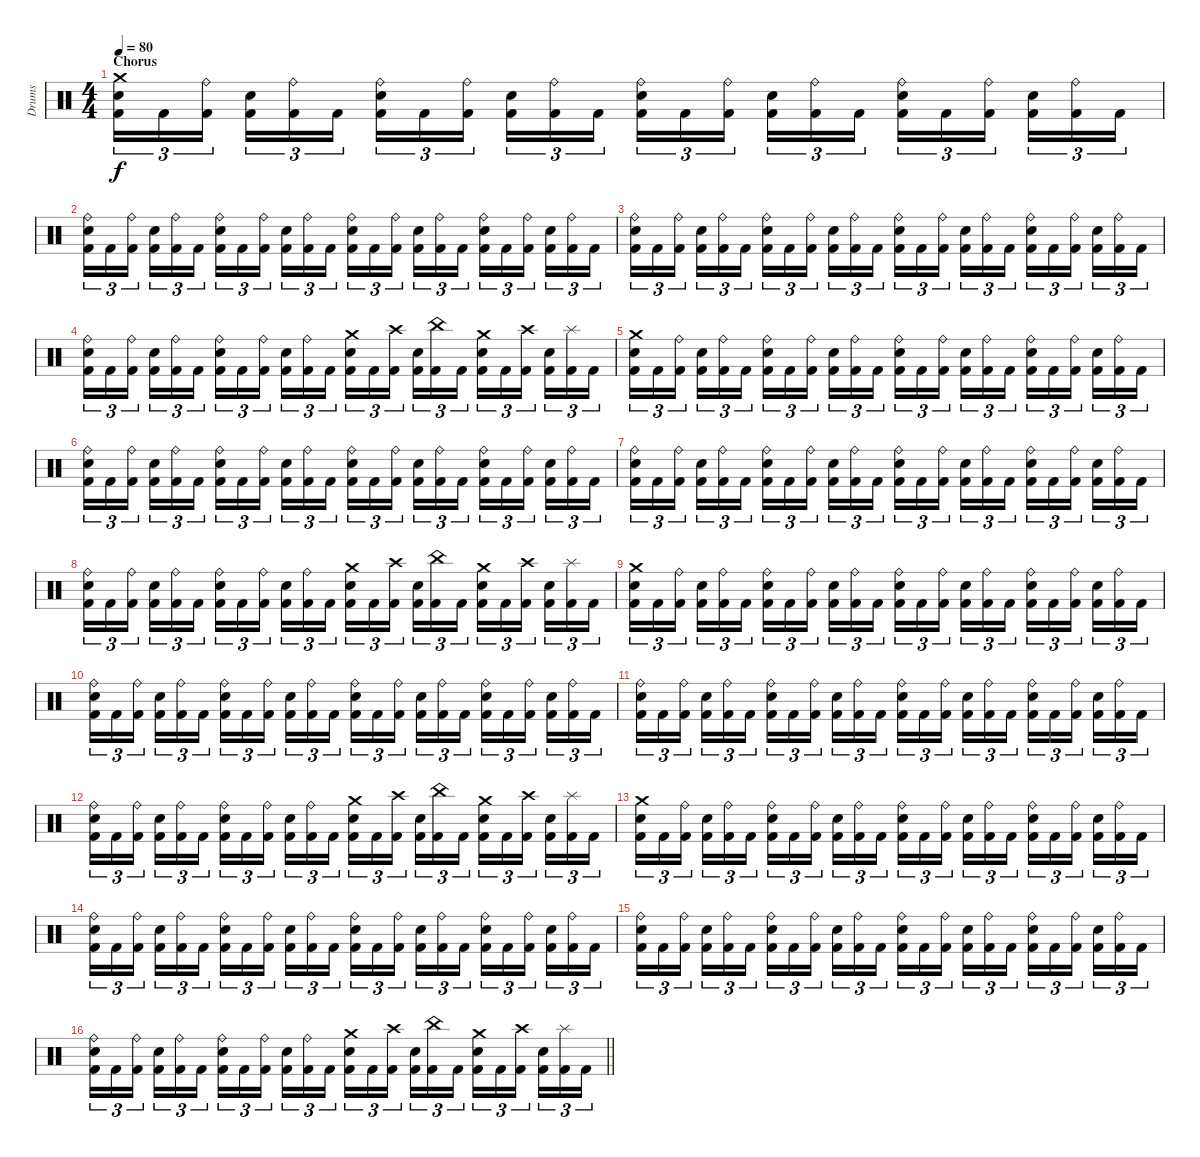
\track ("Drums" "Drums") {instrument percussion}
\staff {score}
\articulation defaults
\ts (4 4)
\section ("" "Chorus")
\tempo 80
\clef neutral
\ks c
("Crash medium (hit)" "Electric Snare (hit)" "Kick (hit) 2").16{tu (3 2) dy f} "Kick (hit) 2".16{tu (3 2)} ("Ride (bell)" "Kick (hit) 2").16{tu (3 2) beam splitsecondary} ("Electric Snare (hit)" "Kick (hit) 2").16{tu (3 2)} ("Ride (bell)" "Kick (hit) 2").16{tu (3 2)} "Kick (hit) 2".16{tu (3 2)} ("Ride (bell)" "Electric Snare (hit)" "Kick (hit) 2").16{tu (3 2)} "Kick (hit) 2".16{tu (3 2)} ("Ride (bell)" "Kick (hit) 2").16{tu (3 2) beam splitsecondary} ("Electric Snare (hit)" "Kick (hit) 2").16{tu (3 2)} ("Ride (bell)" "Kick (hit) 2").16{tu (3 2)} "Kick (hit) 2".16{tu (3 2)} ("Ride (bell)" "Electric Snare (hit)" "Kick (hit) 2").16{tu (3 2)} "Kick (hit) 2".16{tu (3 2)} ("Ride (bell)" "Kick (hit) 2").16{tu (3 2) beam splitsecondary} ("Electric Snare (hit)" "Kick (hit) 2").16{tu (3 2)} ("Ride (bell)" "Kick (hit) 2").16{tu (3 2)} "Kick (hit) 2".16{tu (3 2)} ("Ride (bell)" "Electric Snare (hit)" "Kick (hit) 2").16{tu (3 2)} "Kick (hit) 2".16{tu (3 2)} ("Ride (bell)" "Kick (hit) 2").16{tu (3 2) beam splitsecondary} ("Electric Snare (hit)" "Kick (hit) 2").16{tu (3 2)} ("Ride (bell)" "Kick (hit) 2").16{tu (3 2)} "Kick (hit) 2".16{tu (3 2)} |
("Ride (bell)" "Electric Snare (hit)" "Kick (hit) 2").16{tu (3 2)} "Kick (hit) 2".16{tu (3 2)} ("Ride (bell)" "Kick (hit) 2").16{tu (3 2) beam splitsecondary} ("Electric Snare (hit)" "Kick (hit) 2").16{tu (3 2)} ("Ride (bell)" "Kick (hit) 2").16{tu (3 2)} "Kick (hit) 2".16{tu (3 2)} ("Ride (bell)" "Electric Snare (hit)" "Kick (hit) 2").16{tu (3 2)} "Kick (hit) 2".16{tu (3 2)} ("Ride (bell)" "Kick (hit) 2").16{tu (3 2) beam splitsecondary} ("Electric Snare (hit)" "Kick (hit) 2").16{tu (3 2)} ("Ride (bell)" "Kick (hit) 2").16{tu (3 2)} "Kick (hit) 2".16{tu (3 2)} ("Ride (bell)" "Electric Snare (hit)" "Kick (hit) 2").16{tu (3 2)} "Kick (hit) 2".16{tu (3 2)} ("Ride (bell)" "Kick (hit) 2").16{tu (3 2) beam splitsecondary} ("Electric Snare (hit)" "Kick (hit) 2").16{tu (3 2)} ("Ride (bell)" "Kick (hit) 2").16{tu (3 2)} "Kick (hit) 2".16{tu (3 2)} ("Ride (bell)" "Electric Snare (hit)" "Kick (hit) 2").16{tu (3 2)} "Kick (hit) 2".16{tu (3 2)} ("Ride (bell)" "Kick (hit) 2").16{tu (3 2) beam splitsecondary} ("Electric Snare (hit)" "Kick (hit) 2").16{tu (3 2)} ("Ride (bell)" "Kick (hit) 2").16{tu (3 2)} "Kick (hit) 2".16{tu (3 2)} |
("Ride (bell)" "Electric Snare (hit)" "Kick (hit) 2").16{tu (3 2)} "Kick (hit) 2".16{tu (3 2)} ("Ride (bell)" "Kick (hit) 2").16{tu (3 2) beam splitsecondary} ("Electric Snare (hit)" "Kick (hit) 2").16{tu (3 2)} ("Ride (bell)" "Kick (hit) 2").16{tu (3 2)} "Kick (hit) 2".16{tu (3 2)} ("Ride (bell)" "Electric Snare (hit)" "Kick (hit) 2").16{tu (3 2)} "Kick (hit) 2".16{tu (3 2)} ("Ride (bell)" "Kick (hit) 2").16{tu (3 2) beam splitsecondary} ("Electric Snare (hit)" "Kick (hit) 2").16{tu (3 2)} ("Ride (bell)" "Kick (hit) 2").16{tu (3 2)} "Kick (hit) 2".16{tu (3 2)} ("Ride (bell)" "Electric Snare (hit)" "Kick (hit) 2").16{tu (3 2)} "Kick (hit) 2".16{tu (3 2)} ("Ride (bell)" "Kick (hit) 2").16{tu (3 2) beam splitsecondary} ("Electric Snare (hit)" "Kick (hit) 2").16{tu (3 2)} ("Ride (bell)" "Kick (hit) 2").16{tu (3 2)} "Kick (hit) 2".16{tu (3 2)} ("Ride (bell)" "Electric Snare (hit)" "Kick (hit) 2").16{tu (3 2)} "Kick (hit) 2".16{tu (3 2)} ("Ride (bell)" "Kick (hit) 2").16{tu (3 2) beam splitsecondary} ("Electric Snare (hit)" "Kick (hit) 2").16{tu (3 2)} ("Ride (bell)" "Kick (hit) 2").16{tu (3 2)} "Kick (hit) 2".16{tu (3 2)} |
("Ride (bell)" "Electric Snare (hit)" "Kick (hit) 2").16{tu (3 2)} "Kick (hit) 2".16{tu (3 2)} ("Ride (bell)" "Kick (hit) 2").16{tu (3 2) beam splitsecondary} ("Electric Snare (hit)" "Kick (hit) 2").16{tu (3 2)} ("Ride (bell)" "Kick (hit) 2").16{tu (3 2)} "Kick (hit) 2".16{tu (3 2)} ("Ride (bell)" "Electric Snare (hit)" "Kick (hit) 2").16{tu (3 2)} "Kick (hit) 2".16{tu (3 2)} ("Ride (bell)" "Kick (hit) 2").16{tu (3 2) beam splitsecondary} ("Electric Snare (hit)" "Kick (hit) 2").16{tu (3 2)} ("Ride (bell)" "Kick (hit) 2").16{tu (3 2)} "Kick (hit) 2".16{tu (3 2)} ("Crash medium (hit)" "Electric Snare (hit)" "Kick (hit) 2").16{tu (3 2)} "Kick (hit) 2".16{tu (3 2)} ("Crash high (hit)" "Kick (hit) 2").16{tu (3 2) beam splitsecondary} ("Electric Snare (hit)" "Kick (hit) 2").16{tu (3 2)} ("China (hit)" "Kick (hit) 2").16{tu (3 2)} "Kick (hit) 2".16{tu (3 2)} ("Crash medium (hit)" "Electric Snare (hit)" "Kick (hit) 2").16{tu (3 2)} "Kick (hit) 2".16{tu (3 2)} ("Crash high (hit)" "Kick (hit) 2").16{tu (3 2) beam splitsecondary} ("Electric Snare (hit)" "Kick (hit) 2").16{tu (3 2)} ("Splash (hit)" "Kick (hit) 2").16{tu (3 2)} "Kick (hit) 2".16{tu (3 2)} |
("Crash medium (hit)" "Electric Snare (hit)" "Kick (hit) 2").16{tu (3 2)} "Kick (hit) 2".16{tu (3 2)} ("Ride (bell)" "Kick (hit) 2").16{tu (3 2) beam splitsecondary} ("Electric Snare (hit)" "Kick (hit) 2").16{tu (3 2)} ("Ride (bell)" "Kick (hit) 2").16{tu (3 2)} "Kick (hit) 2".16{tu (3 2)} ("Ride (bell)" "Electric Snare (hit)" "Kick (hit) 2").16{tu (3 2)} "Kick (hit) 2".16{tu (3 2)} ("Ride (bell)" "Kick (hit) 2").16{tu (3 2) beam splitsecondary} ("Electric Snare (hit)" "Kick (hit) 2").16{tu (3 2)} ("Ride (bell)" "Kick (hit) 2").16{tu (3 2)} "Kick (hit) 2".16{tu (3 2)} ("Ride (bell)" "Electric Snare (hit)" "Kick (hit) 2").16{tu (3 2)} "Kick (hit) 2".16{tu (3 2)} ("Ride (bell)" "Kick (hit) 2").16{tu (3 2) beam splitsecondary} ("Electric Snare (hit)" "Kick (hit) 2").16{tu (3 2)} ("Ride (bell)" "Kick (hit) 2").16{tu (3 2)} "Kick (hit) 2".16{tu (3 2)} ("Ride (bell)" "Electric Snare (hit)" "Kick (hit) 2").16{tu (3 2)} "Kick (hit) 2".16{tu (3 2)} ("Ride (bell)" "Kick (hit) 2").16{tu (3 2) beam splitsecondary} ("Electric Snare (hit)" "Kick (hit) 2").16{tu (3 2)} ("Ride (bell)" "Kick (hit) 2").16{tu (3 2)} "Kick (hit) 2".16{tu (3 2)} |
("Ride (bell)" "Electric Snare (hit)" "Kick (hit) 2").16{tu (3 2)} "Kick (hit) 2".16{tu (3 2)} ("Ride (bell)" "Kick (hit) 2").16{tu (3 2) beam splitsecondary} ("Electric Snare (hit)" "Kick (hit) 2").16{tu (3 2)} ("Ride (bell)" "Kick (hit) 2").16{tu (3 2)} "Kick (hit) 2".16{tu (3 2)} ("Ride (bell)" "Electric Snare (hit)" "Kick (hit) 2").16{tu (3 2)} "Kick (hit) 2".16{tu (3 2)} ("Ride (bell)" "Kick (hit) 2").16{tu (3 2) beam splitsecondary} ("Electric Snare (hit)" "Kick (hit) 2").16{tu (3 2)} ("Ride (bell)" "Kick (hit) 2").16{tu (3 2)} "Kick (hit) 2".16{tu (3 2)} ("Ride (bell)" "Electric Snare (hit)" "Kick (hit) 2").16{tu (3 2)} "Kick (hit) 2".16{tu (3 2)} ("Ride (bell)" "Kick (hit) 2").16{tu (3 2) beam splitsecondary} ("Electric Snare (hit)" "Kick (hit) 2").16{tu (3 2)} ("Ride (bell)" "Kick (hit) 2").16{tu (3 2)} "Kick (hit) 2".16{tu (3 2)} ("Ride (bell)" "Electric Snare (hit)" "Kick (hit) 2").16{tu (3 2)} "Kick (hit) 2".16{tu (3 2)} ("Ride (bell)" "Kick (hit) 2").16{tu (3 2) beam splitsecondary} ("Electric Snare (hit)" "Kick (hit) 2").16{tu (3 2)} ("Ride (bell)" "Kick (hit) 2").16{tu (3 2)} "Kick (hit) 2".16{tu (3 2)} |
("Ride (bell)" "Electric Snare (hit)" "Kick (hit) 2").16{tu (3 2)} "Kick (hit) 2".16{tu (3 2)} ("Ride (bell)" "Kick (hit) 2").16{tu (3 2) beam splitsecondary} ("Electric Snare (hit)" "Kick (hit) 2").16{tu (3 2)} ("Ride (bell)" "Kick (hit) 2").16{tu (3 2)} "Kick (hit) 2".16{tu (3 2)} ("Ride (bell)" "Electric Snare (hit)" "Kick (hit) 2").16{tu (3 2)} "Kick (hit) 2".16{tu (3 2)} ("Ride (bell)" "Kick (hit) 2").16{tu (3 2) beam splitsecondary} ("Electric Snare (hit)" "Kick (hit) 2").16{tu (3 2)} ("Ride (bell)" "Kick (hit) 2").16{tu (3 2)} "Kick (hit) 2".16{tu (3 2)} ("Ride (bell)" "Electric Snare (hit)" "Kick (hit) 2").16{tu (3 2)} "Kick (hit) 2".16{tu (3 2)} ("Ride (bell)" "Kick (hit) 2").16{tu (3 2) beam splitsecondary} ("Electric Snare (hit)" "Kick (hit) 2").16{tu (3 2)} ("Ride (bell)" "Kick (hit) 2").16{tu (3 2)} "Kick (hit) 2".16{tu (3 2)} ("Ride (bell)" "Electric Snare (hit)" "Kick (hit) 2").16{tu (3 2)} "Kick (hit) 2".16{tu (3 2)} ("Ride (bell)" "Kick (hit) 2").16{tu (3 2) beam splitsecondary} ("Electric Snare (hit)" "Kick (hit) 2").16{tu (3 2)} ("Ride (bell)" "Kick (hit) 2").16{tu (3 2)} "Kick (hit) 2".16{tu (3 2)} |
("Ride (bell)" "Electric Snare (hit)" "Kick (hit) 2").16{tu (3 2)} "Kick (hit) 2".16{tu (3 2)} ("Ride (bell)" "Kick (hit) 2").16{tu (3 2) beam splitsecondary} ("Electric Snare (hit)" "Kick (hit) 2").16{tu (3 2)} ("Ride (bell)" "Kick (hit) 2").16{tu (3 2)} "Kick (hit) 2".16{tu (3 2)} ("Ride (bell)" "Electric Snare (hit)" "Kick (hit) 2").16{tu (3 2)} "Kick (hit) 2".16{tu (3 2)} ("Ride (bell)" "Kick (hit) 2").16{tu (3 2) beam splitsecondary} ("Electric Snare (hit)" "Kick (hit) 2").16{tu (3 2)} ("Ride (bell)" "Kick (hit) 2").16{tu (3 2)} "Kick (hit) 2".16{tu (3 2)} ("Crash medium (hit)" "Electric Snare (hit)" "Kick (hit) 2").16{tu (3 2)} "Kick (hit) 2".16{tu (3 2)} ("Crash high (hit)" "Kick (hit) 2").16{tu (3 2) beam splitsecondary} ("Electric Snare (hit)" "Kick (hit) 2").16{tu (3 2)} ("China (hit)" "Kick (hit) 2").16{tu (3 2)} "Kick (hit) 2".16{tu (3 2)} ("Crash medium (hit)" "Electric Snare (hit)" "Kick (hit) 2").16{tu (3 2)} "Kick (hit) 2".16{tu (3 2)} ("Crash high (hit)" "Kick (hit) 2").16{tu (3 2) beam splitsecondary} ("Electric Snare (hit)" "Kick (hit) 2").16{tu (3 2)} ("Splash (hit)" "Kick (hit) 2").16{tu (3 2)} "Kick (hit) 2".16{tu (3 2)} |
("Crash medium (hit)" "Electric Snare (hit)" "Kick (hit) 2").16{tu (3 2)} "Kick (hit) 2".16{tu (3 2)} ("Ride (bell)" "Kick (hit) 2").16{tu (3 2) beam splitsecondary} ("Electric Snare (hit)" "Kick (hit) 2").16{tu (3 2)} ("Ride (bell)" "Kick (hit) 2").16{tu (3 2)} "Kick (hit) 2".16{tu (3 2)} ("Ride (bell)" "Electric Snare (hit)" "Kick (hit) 2").16{tu (3 2)} "Kick (hit) 2".16{tu (3 2)} ("Ride (bell)" "Kick (hit) 2").16{tu (3 2) beam splitsecondary} ("Electric Snare (hit)" "Kick (hit) 2").16{tu (3 2)} ("Ride (bell)" "Kick (hit) 2").16{tu (3 2)} "Kick (hit) 2".16{tu (3 2)} ("Ride (bell)" "Electric Snare (hit)" "Kick (hit) 2").16{tu (3 2)} "Kick (hit) 2".16{tu (3 2)} ("Ride (bell)" "Kick (hit) 2").16{tu (3 2) beam splitsecondary} ("Electric Snare (hit)" "Kick (hit) 2").16{tu (3 2)} ("Ride (bell)" "Kick (hit) 2").16{tu (3 2)} "Kick (hit) 2".16{tu (3 2)} ("Ride (bell)" "Electric Snare (hit)" "Kick (hit) 2").16{tu (3 2)} "Kick (hit) 2".16{tu (3 2)} ("Ride (bell)" "Kick (hit) 2").16{tu (3 2) beam splitsecondary} ("Electric Snare (hit)" "Kick (hit) 2").16{tu (3 2)} ("Ride (bell)" "Kick (hit) 2").16{tu (3 2)} "Kick (hit) 2".16{tu (3 2)} |
("Ride (bell)" "Electric Snare (hit)" "Kick (hit) 2").16{tu (3 2)} "Kick (hit) 2".16{tu (3 2)} ("Ride (bell)" "Kick (hit) 2").16{tu (3 2) beam splitsecondary} ("Electric Snare (hit)" "Kick (hit) 2").16{tu (3 2)} ("Ride (bell)" "Kick (hit) 2").16{tu (3 2)} "Kick (hit) 2".16{tu (3 2)} ("Ride (bell)" "Electric Snare (hit)" "Kick (hit) 2").16{tu (3 2)} "Kick (hit) 2".16{tu (3 2)} ("Ride (bell)" "Kick (hit) 2").16{tu (3 2) beam splitsecondary} ("Electric Snare (hit)" "Kick (hit) 2").16{tu (3 2)} ("Ride (bell)" "Kick (hit) 2").16{tu (3 2)} "Kick (hit) 2".16{tu (3 2)} ("Ride (bell)" "Electric Snare (hit)" "Kick (hit) 2").16{tu (3 2)} "Kick (hit) 2".16{tu (3 2)} ("Ride (bell)" "Kick (hit) 2").16{tu (3 2) beam splitsecondary} ("Electric Snare (hit)" "Kick (hit) 2").16{tu (3 2)} ("Ride (bell)" "Kick (hit) 2").16{tu (3 2)} "Kick (hit) 2".16{tu (3 2)} ("Ride (bell)" "Electric Snare (hit)" "Kick (hit) 2").16{tu (3 2)} "Kick (hit) 2".16{tu (3 2)} ("Ride (bell)" "Kick (hit) 2").16{tu (3 2) beam splitsecondary} ("Electric Snare (hit)" "Kick (hit) 2").16{tu (3 2)} ("Ride (bell)" "Kick (hit) 2").16{tu (3 2)} "Kick (hit) 2".16{tu (3 2)} |
("Ride (bell)" "Electric Snare (hit)" "Kick (hit) 2").16{tu (3 2)} "Kick (hit) 2".16{tu (3 2)} ("Ride (bell)" "Kick (hit) 2").16{tu (3 2) beam splitsecondary} ("Electric Snare (hit)" "Kick (hit) 2").16{tu (3 2)} ("Ride (bell)" "Kick (hit) 2").16{tu (3 2)} "Kick (hit) 2".16{tu (3 2)} ("Ride (bell)" "Electric Snare (hit)" "Kick (hit) 2").16{tu (3 2)} "Kick (hit) 2".16{tu (3 2)} ("Ride (bell)" "Kick (hit) 2").16{tu (3 2) beam splitsecondary} ("Electric Snare (hit)" "Kick (hit) 2").16{tu (3 2)} ("Ride (bell)" "Kick (hit) 2").16{tu (3 2)} "Kick (hit) 2".16{tu (3 2)} ("Ride (bell)" "Electric Snare (hit)" "Kick (hit) 2").16{tu (3 2)} "Kick (hit) 2".16{tu (3 2)} ("Ride (bell)" "Kick (hit) 2").16{tu (3 2) beam splitsecondary} ("Electric Snare (hit)" "Kick (hit) 2").16{tu (3 2)} ("Ride (bell)" "Kick (hit) 2").16{tu (3 2)} "Kick (hit) 2".16{tu (3 2)} ("Ride (bell)" "Electric Snare (hit)" "Kick (hit) 2").16{tu (3 2)} "Kick (hit) 2".16{tu (3 2)} ("Ride (bell)" "Kick (hit) 2").16{tu (3 2) beam splitsecondary} ("Electric Snare (hit)" "Kick (hit) 2").16{tu (3 2)} ("Ride (bell)" "Kick (hit) 2").16{tu (3 2)} "Kick (hit) 2".16{tu (3 2)} |
("Ride (bell)" "Electric Snare (hit)" "Kick (hit) 2").16{tu (3 2)} "Kick (hit) 2".16{tu (3 2)} ("Ride (bell)" "Kick (hit) 2").16{tu (3 2) beam splitsecondary} ("Electric Snare (hit)" "Kick (hit) 2").16{tu (3 2)} ("Ride (bell)" "Kick (hit) 2").16{tu (3 2)} "Kick (hit) 2".16{tu (3 2)} ("Ride (bell)" "Electric Snare (hit)" "Kick (hit) 2").16{tu (3 2)} "Kick (hit) 2".16{tu (3 2)} ("Ride (bell)" "Kick (hit) 2").16{tu (3 2) beam splitsecondary} ("Electric Snare (hit)" "Kick (hit) 2").16{tu (3 2)} ("Ride (bell)" "Kick (hit) 2").16{tu (3 2)} "Kick (hit) 2".16{tu (3 2)} ("Crash medium (hit)" "Electric Snare (hit)" "Kick (hit) 2").16{tu (3 2)} "Kick (hit) 2".16{tu (3 2)} ("Crash high (hit)" "Kick (hit) 2").16{tu (3 2) beam splitsecondary} ("Electric Snare (hit)" "Kick (hit) 2").16{tu (3 2)} ("China (hit)" "Kick (hit) 2").16{tu (3 2)} "Kick (hit) 2".16{tu (3 2)} ("Crash medium (hit)" "Electric Snare (hit)" "Kick (hit) 2").16{tu (3 2)} "Kick (hit) 2".16{tu (3 2)} ("Crash high (hit)" "Kick (hit) 2").16{tu (3 2) beam splitsecondary} ("Electric Snare (hit)" "Kick (hit) 2").16{tu (3 2)} ("Splash (hit)" "Kick (hit) 2").16{tu (3 2)} "Kick (hit) 2".16{tu (3 2)} |
("Crash medium (hit)" "Electric Snare (hit)" "Kick (hit) 2").16{tu (3 2)} "Kick (hit) 2".16{tu (3 2)} ("Ride (bell)" "Kick (hit) 2").16{tu (3 2) beam splitsecondary} ("Electric Snare (hit)" "Kick (hit) 2").16{tu (3 2)} ("Ride (bell)" "Kick (hit) 2").16{tu (3 2)} "Kick (hit) 2".16{tu (3 2)} ("Ride (bell)" "Electric Snare (hit)" "Kick (hit) 2").16{tu (3 2)} "Kick (hit) 2".16{tu (3 2)} ("Ride (bell)" "Kick (hit) 2").16{tu (3 2) beam splitsecondary} ("Electric Snare (hit)" "Kick (hit) 2").16{tu (3 2)} ("Ride (bell)" "Kick (hit) 2").16{tu (3 2)} "Kick (hit) 2".16{tu (3 2)} ("Ride (bell)" "Electric Snare (hit)" "Kick (hit) 2").16{tu (3 2)} "Kick (hit) 2".16{tu (3 2)} ("Ride (bell)" "Kick (hit) 2").16{tu (3 2) beam splitsecondary} ("Electric Snare (hit)" "Kick (hit) 2").16{tu (3 2)} ("Ride (bell)" "Kick (hit) 2").16{tu (3 2)} "Kick (hit) 2".16{tu (3 2)} ("Ride (bell)" "Electric Snare (hit)" "Kick (hit) 2").16{tu (3 2)} "Kick (hit) 2".16{tu (3 2)} ("Ride (bell)" "Kick (hit) 2").16{tu (3 2) beam splitsecondary} ("Electric Snare (hit)" "Kick (hit) 2").16{tu (3 2)} ("Ride (bell)" "Kick (hit) 2").16{tu (3 2)} "Kick (hit) 2".16{tu (3 2)} |
("Ride (bell)" "Electric Snare (hit)" "Kick (hit) 2").16{tu (3 2)} "Kick (hit) 2".16{tu (3 2)} ("Ride (bell)" "Kick (hit) 2").16{tu (3 2) beam splitsecondary} ("Electric Snare (hit)" "Kick (hit) 2").16{tu (3 2)} ("Ride (bell)" "Kick (hit) 2").16{tu (3 2)} "Kick (hit) 2".16{tu (3 2)} ("Ride (bell)" "Electric Snare (hit)" "Kick (hit) 2").16{tu (3 2)} "Kick (hit) 2".16{tu (3 2)} ("Ride (bell)" "Kick (hit) 2").16{tu (3 2) beam splitsecondary} ("Electric Snare (hit)" "Kick (hit) 2").16{tu (3 2)} ("Ride (bell)" "Kick (hit) 2").16{tu (3 2)} "Kick (hit) 2".16{tu (3 2)} ("Ride (bell)" "Electric Snare (hit)" "Kick (hit) 2").16{tu (3 2)} "Kick (hit) 2".16{tu (3 2)} ("Ride (bell)" "Kick (hit) 2").16{tu (3 2) beam splitsecondary} ("Electric Snare (hit)" "Kick (hit) 2").16{tu (3 2)} ("Ride (bell)" "Kick (hit) 2").16{tu (3 2)} "Kick (hit) 2".16{tu (3 2)} ("Ride (bell)" "Electric Snare (hit)" "Kick (hit) 2").16{tu (3 2)} "Kick (hit) 2".16{tu (3 2)} ("Ride (bell)" "Kick (hit) 2").16{tu (3 2) beam splitsecondary} ("Electric Snare (hit)" "Kick (hit) 2").16{tu (3 2)} ("Ride (bell)" "Kick (hit) 2").16{tu (3 2)} "Kick (hit) 2".16{tu (3 2)} |
("Ride (bell)" "Electric Snare (hit)" "Kick (hit) 2").16{tu (3 2)} "Kick (hit) 2".16{tu (3 2)} ("Ride (bell)" "Kick (hit) 2").16{tu (3 2) beam splitsecondary} ("Electric Snare (hit)" "Kick (hit) 2").16{tu (3 2)} ("Ride (bell)" "Kick (hit) 2").16{tu (3 2)} "Kick (hit) 2".16{tu (3 2)} ("Ride (bell)" "Electric Snare (hit)" "Kick (hit) 2").16{tu (3 2)} "Kick (hit) 2".16{tu (3 2)} ("Ride (bell)" "Kick (hit) 2").16{tu (3 2) beam splitsecondary} ("Electric Snare (hit)" "Kick (hit) 2").16{tu (3 2)} ("Ride (bell)" "Kick (hit) 2").16{tu (3 2)} "Kick (hit) 2".16{tu (3 2)} ("Ride (bell)" "Electric Snare (hit)" "Kick (hit) 2").16{tu (3 2)} "Kick (hit) 2".16{tu (3 2)} ("Ride (bell)" "Kick (hit) 2").16{tu (3 2) beam splitsecondary} ("Electric Snare (hit)" "Kick (hit) 2").16{tu (3 2)} ("Ride (bell)" "Kick (hit) 2").16{tu (3 2)} "Kick (hit) 2".16{tu (3 2)} ("Ride (bell)" "Electric Snare (hit)" "Kick (hit) 2").16{tu (3 2)} "Kick (hit) 2".16{tu (3 2)} ("Ride (bell)" "Kick (hit) 2").16{tu (3 2) beam splitsecondary} ("Electric Snare (hit)" "Kick (hit) 2").16{tu (3 2)} ("Ride (bell)" "Kick (hit) 2").16{tu (3 2)} "Kick (hit) 2".16{tu (3 2)} |
\barLineRight lightlight
("Ride (bell)" "Electric Snare (hit)" "Kick (hit) 2").16{tu (3 2)} "Kick (hit) 2".16{tu (3 2)} ("Ride (bell)" "Kick (hit) 2").16{tu (3 2) beam splitsecondary} ("Electric Snare (hit)" "Kick (hit) 2").16{tu (3 2)} ("Ride (bell)" "Kick (hit) 2").16{tu (3 2)} "Kick (hit) 2".16{tu (3 2)} ("Ride (bell)" "Electric Snare (hit)" "Kick (hit) 2").16{tu (3 2)} "Kick (hit) 2".16{tu (3 2)} ("Ride (bell)" "Kick (hit) 2").16{tu (3 2) beam splitsecondary} ("Electric Snare (hit)" "Kick (hit) 2").16{tu (3 2)} ("Ride (bell)" "Kick (hit) 2").16{tu (3 2)} "Kick (hit) 2".16{tu (3 2)} ("Crash medium (hit)" "Electric Snare (hit)" "Kick (hit) 2").16{tu (3 2)} "Kick (hit) 2".16{tu (3 2)} ("Crash high (hit)" "Kick (hit) 2").16{tu (3 2) beam splitsecondary} ("Electric Snare (hit)" "Kick (hit) 2").16{tu (3 2)} ("China (hit)" "Kick (hit) 2").16{tu (3 2)} "Kick (hit) 2".16{tu (3 2)} ("Crash medium (hit)" "Electric Snare (hit)" "Kick (hit) 2").16{tu (3 2)} "Kick (hit) 2".16{tu (3 2)} ("Crash high (hit)" "Kick (hit) 2").16{tu (3 2) beam splitsecondary} ("Electric Snare (hit)" "Kick (hit) 2").16{tu (3 2)} ("Splash (hit)" "Kick (hit) 2").16{tu (3 2)} "Kick (hit) 2".16{tu (3 2)}
